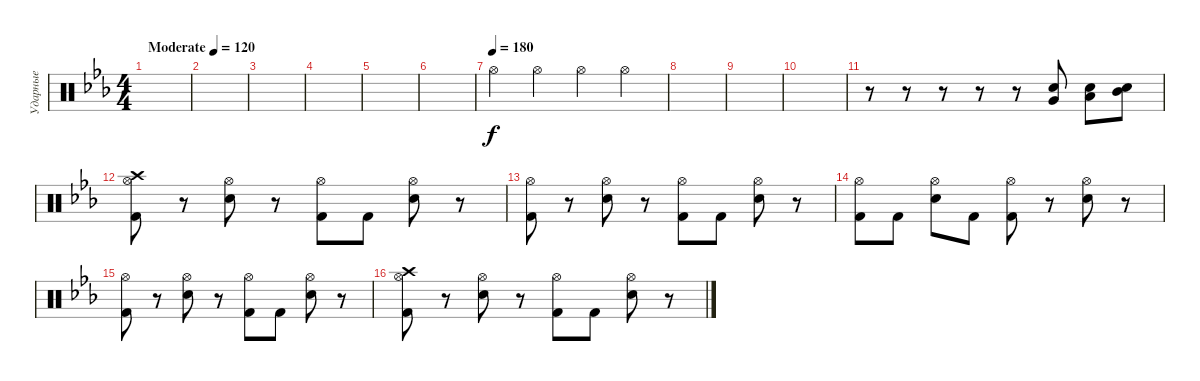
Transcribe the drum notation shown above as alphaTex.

\track ("Ударные" "Ударные") {instrument percussion}
\staff {score}
\articulation defaults
\ts (4 4)
\tempo (120 "Moderate")
\clef neutral
\ks eb
|
|
|
|
|
|
\tempo (180)
"Hi-Hat (open)".4 "Hi-Hat (open)".4 "Hi-Hat (open)".4 "Hi-Hat (open)".4 |
|
|
|
r.8 r.8 r.8 r.8 r.8 ("Electric Snare (hit)" "Very Low Tom (hit)").8 ("Electric Snare (hit)" "Low Tom (hit)").8 ("Electric Snare (hit)" "Mid Tom (hit)").8 |
("Hi-Hat (open)" "Kick (hit) 2" "Crash high (hit)").8 r.8 ("Hi-Hat (open)" "Electric Snare (hit)").8 r.8 ("Hi-Hat (open)" "Kick (hit) 2").8 "Kick (hit) 2".8 ("Hi-Hat (open)" "Electric Snare (hit)").8 r.8 |
("Hi-Hat (open)" "Kick (hit) 2").8 r.8 ("Hi-Hat (open)" "Electric Snare (hit)").8 r.8 ("Hi-Hat (open)" "Kick (hit) 2").8 "Kick (hit) 2".8 ("Hi-Hat (open)" "Electric Snare (hit)").8 r.8 |
("Hi-Hat (open)" "Kick (hit) 2").8 "Kick (hit) 2".8 ("Hi-Hat (open)" "Electric Snare (hit)").8 "Kick (hit) 2".8 ("Hi-Hat (open)" "Kick (hit) 2").8 r.8 ("Hi-Hat (open)" "Electric Snare (hit)").8 r.8 |
("Hi-Hat (open)" "Kick (hit) 2").8 r.8 ("Hi-Hat (open)" "Electric Snare (hit)").8 r.8 ("Hi-Hat (open)" "Kick (hit) 2").8 "Kick (hit) 2".8 ("Hi-Hat (open)" "Electric Snare (hit)").8 r.8 |
("Hi-Hat (open)" "Kick (hit) 2" "Crash high (hit)").8 r.8 ("Hi-Hat (open)" "Electric Snare (hit)").8 r.8 ("Hi-Hat (open)" "Kick (hit) 2").8 "Kick (hit) 2".8 ("Hi-Hat (open)" "Electric Snare (hit)").8 r.8
